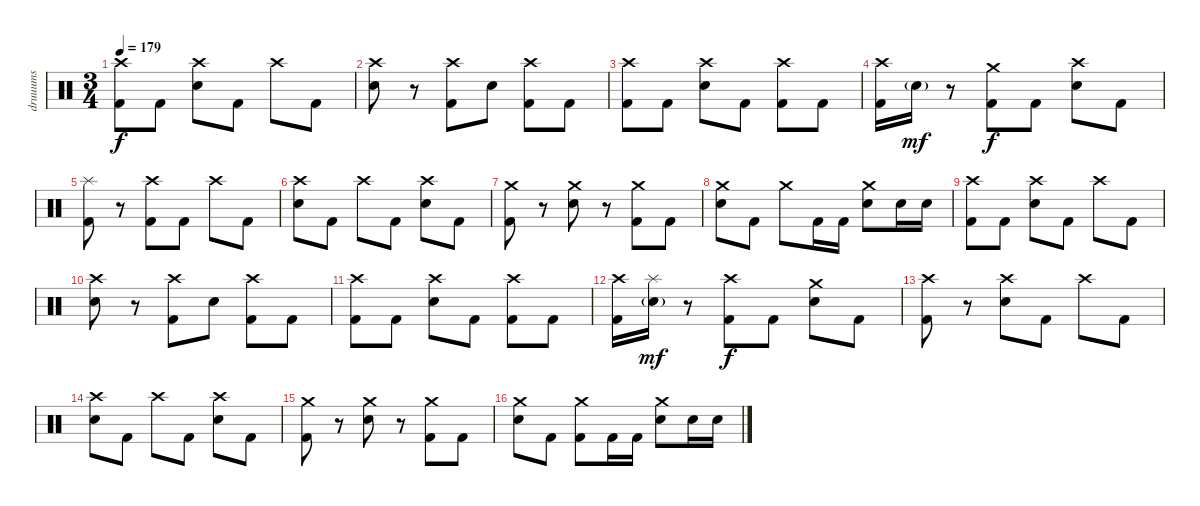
\track ("druuums" "druuums") {instrument percussion}
\staff {score}
\articulation defaults
\ts (3 4)
\tempo 179
\clef neutral
\ks c
("Crash high (hit)" "Kick (hit) 2").8{dy f} "Kick (hit) 2".8 ("Crash high (hit)" "Electric Snare (hit)").8 "Kick (hit) 2".8 "Crash high (hit)".8 "Kick (hit) 2".8 |
("Crash high (hit)" "Electric Snare (hit)").8 r.8 ("Crash high (hit)" "Kick (hit) 2").8 "Electric Snare (hit)".8 ("Crash high (hit)" "Kick (hit) 2").8 "Kick (hit) 2".8 |
("Crash high (hit)" "Kick (hit) 2").8 "Kick (hit) 2".8 ("Crash high (hit)" "Electric Snare (hit)").8 "Kick (hit) 2".8 ("Crash high (hit)" "Kick (hit) 2").8 "Kick (hit) 2".8 |
("Crash high (hit)" "Kick (hit) 2").16 "Electric Snare (hit)"{g}.16{dy mf} r.8 ("Crash medium (hit)" "Kick (hit) 2").8{dy f} "Kick (hit) 2".8 ("Crash high (hit)" "Electric Snare (hit)").8 "Kick (hit) 2".8 |
("Splash (hit)" "Kick (hit) 2").8 r.8 ("Crash high (hit)" "Kick (hit) 2").8 "Kick (hit) 2".8 "Crash high (hit)".8 "Kick (hit) 2".8 |
("Crash high (hit)" "Electric Snare (hit)").8 "Kick (hit) 2".8 "Crash high (hit)".8 "Kick (hit) 2".8 ("Crash high (hit)" "Electric Snare (hit)").8 "Kick (hit) 2".8 |
("Crash medium (hit)" "Kick (hit) 2").8 r.8 ("Crash medium (hit)" "Electric Snare (hit)").8 r.8 ("Crash medium (hit)" "Kick (hit) 2").8 "Kick (hit) 2".8 |
("Crash medium (hit)" "Electric Snare (hit)").8 "Kick (hit) 2".8 "Crash medium (hit)".8 "Kick (hit) 2".16 "Kick (hit) 2".16 ("Crash medium (hit)" "Electric Snare (hit)").8 "Electric Snare (hit)".16 "Electric Snare (hit)".16 |
("Crash high (hit)" "Kick (hit) 2").8 "Kick (hit) 2".8 ("Crash high (hit)" "Electric Snare (hit)").8 "Kick (hit) 2".8 "Crash high (hit)".8 "Kick (hit) 2".8 |
("Crash high (hit)" "Electric Snare (hit)").8 r.8 ("Crash high (hit)" "Kick (hit) 2").8 "Electric Snare (hit)".8 ("Crash high (hit)" "Kick (hit) 2").8 "Kick (hit) 2".8 |
("Crash high (hit)" "Kick (hit) 2").8 "Kick (hit) 2".8 ("Crash high (hit)" "Electric Snare (hit)").8 "Kick (hit) 2".8 ("Crash high (hit)" "Kick (hit) 2").8 "Kick (hit) 2".8 |
("Crash high (hit)" "Kick (hit) 2").16 ("Splash (hit)" "Electric Snare (hit)"{g}).16{dy mf} r.8 ("Crash high (hit)" "Kick (hit) 2").8{dy f} "Kick (hit) 2".8 ("Crash medium (hit)" "Electric Snare (hit)").8 "Kick (hit) 2".8 |
("Crash high (hit)" "Kick (hit) 2").8 r.8 ("Crash high (hit)" "Electric Snare (hit)").8 "Kick (hit) 2".8 "Crash high (hit)".8 "Kick (hit) 2".8 |
("Crash high (hit)" "Electric Snare (hit)").8 "Kick (hit) 2".8 "Crash high (hit)".8 "Kick (hit) 2".8 ("Crash high (hit)" "Electric Snare (hit)").8 "Kick (hit) 2".8 |
("Crash medium (hit)" "Kick (hit) 2").8 r.8 ("Crash medium (hit)" "Electric Snare (hit)").8 r.8 ("Crash medium (hit)" "Kick (hit) 2").8 "Kick (hit) 2".8 |
("Crash medium (hit)" "Electric Snare (hit)").8 "Kick (hit) 2".8 ("Crash medium (hit)" "Kick (hit) 2").8 "Kick (hit) 2".16 "Kick (hit) 2".16 ("Crash medium (hit)" "Electric Snare (hit)").8 "Electric Snare (hit)".16 "Electric Snare (hit)".16
